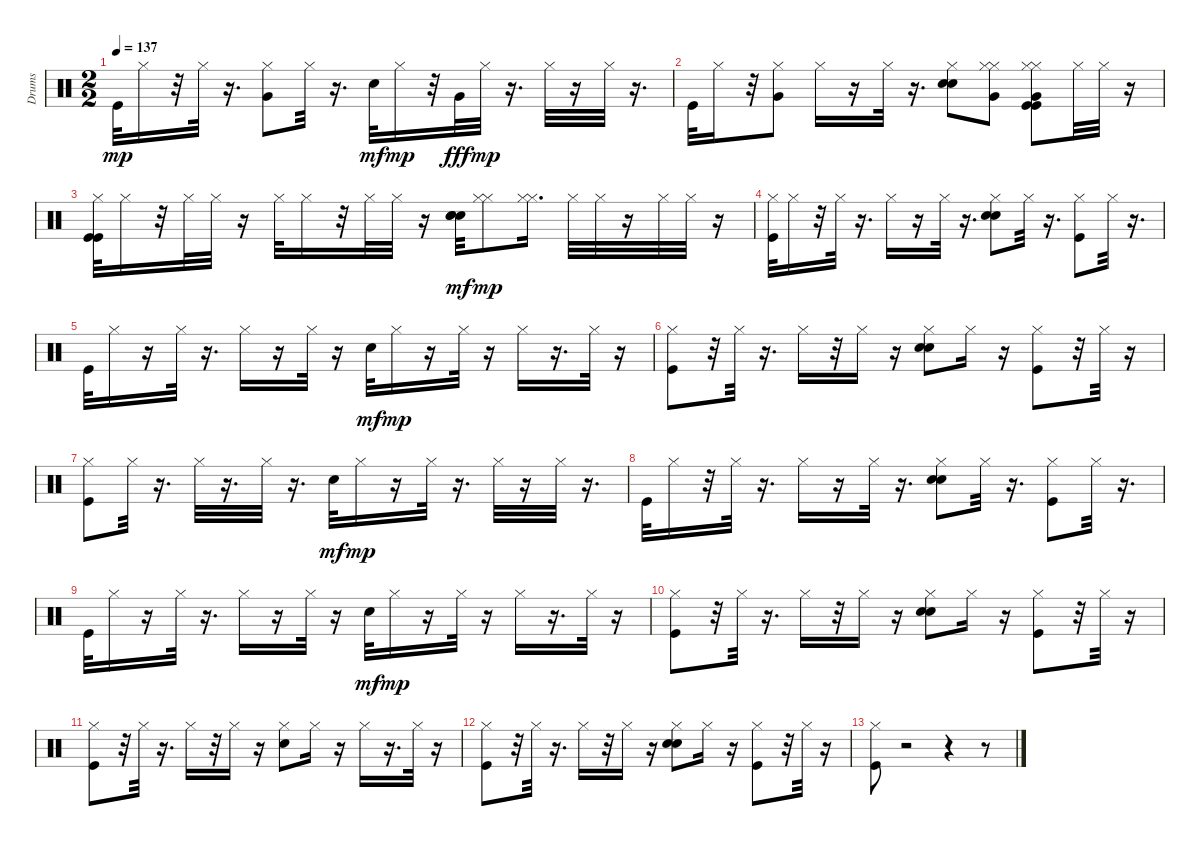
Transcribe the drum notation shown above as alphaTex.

\track ("Drums" "Drums") {instrument percussion}
\staff {score}
\articulation defaults
\ts (2 2)
\tempo 137
\clef neutral
\ks c "Kick (hit)".32{dy mp} "Hi-Hat (closed)".16
r.32 "Hi-Hat (closed)".32 r.16{d} ("Very Low Tom (hit)" "Hi-Hat (closed)").8 "Hi-Hat (closed)".32 r.16{d} "Snare (hit) 2".32{dy mf} "Hi-Hat (closed)".16{dy mp} r.32 "Very Low Tom (hit)".32{dy fff} "Hi-Hat (closed)".32{dy mp} r.16{d} "Hi-Hat (closed)".32 r.16 "Hi-Hat (closed)".32 r.16{d} |
"Kick (hit)".32 "Hi-Hat (closed)".16 r.32 ("Very Low Tom (hit)" "Hi-Hat (closed)").8 "Hi-Hat (closed)".16 r.16 "Hi-Hat (closed)".32 r.16{d} ("Snare (hit) 2" "Hand Clap (hit)" "Hi-Hat (closed)").8 ("Very Low Tom (hit)" "Hi-Hat (closed)" "Hi-Hat (closed)").8 ("Kick (hit)" "Kick (hit)" "Hi-Hat (closed)" "Very Low Tom (hit)" "Hi-Hat (closed)").8 "Hi-Hat (closed)".32 "Hi-Hat (closed)".32 r.16 |
("Kick (hit)" "Kick (hit)" "Hi-Hat (closed)").32 "Hi-Hat (closed)".16 r.32 "Hi-Hat (closed)".32{volume 13} "Hi-Hat (closed)".32 r.16 "Hi-Hat (closed)".32 "Hi-Hat (closed)".16 r.32 "Hi-Hat (closed)".32 "Hi-Hat (closed)".32 r.16 ("Snare (hit) 2" "Snare (hit) 2" "Hand Clap (hit)").32{dy mf} ("Hi-Hat (closed)" "Hi-Hat (closed)").8{dy mp} ("Hi-Hat (closed)" "Hi-Hat (closed)").16{d} "Hi-Hat (closed)".32 "Hi-Hat (closed)".32 r.16 "Hi-Hat (closed)".32 "Hi-Hat (closed)".32 r.16 |
("Kick (hit)" "Hi-Hat (closed)").32 "Hi-Hat (closed)".16 r.32 "Hi-Hat (closed)".32 r.16{d} "Hi-Hat (closed)".16 r.16 "Hi-Hat (closed)".32{volume 13} r.16{d} ("Snare (hit) 2" "Hand Clap (hit)" "Hi-Hat (closed)").8 "Hi-Hat (closed)".32 r.16{d} ("Kick (hit)" "Hi-Hat (closed)").8 "Hi-Hat (closed)".32 r.16{d} |
"Kick (hit)".32 "Hi-Hat (closed)".16 r.16 "Hi-Hat (closed)".32 r.16{d} "Hi-Hat (closed)".16 r.16 "Hi-Hat (closed)".32 r.16 "Snare (hit) 2".32{dy mf} "Hi-Hat (closed)".16{dy mp} r.16 "Hi-Hat (closed)".32 r.16 "Hi-Hat (closed)".16 r.16{d} "Hi-Hat (closed)".32 r.16 |
("Kick (hit)" "Hi-Hat (closed)").8 r.32 "Hi-Hat (closed)".32 r.16{d} "Hi-Hat (closed)".16 r.32 "Hi-Hat (closed)".16 r.16 ("Snare (hit) 2" "Hand Clap (hit)" "Hi-Hat (closed)").8 "Hi-Hat (closed)".16 r.16 ("Kick (hit)" "Hi-Hat (closed)").8 r.32 "Hi-Hat (closed)".32 r.16 |
("Kick (hit)" "Hi-Hat (closed)").8 "Hi-Hat (closed)".32{volume 12} r.16{d} "Hi-Hat (closed)".32{volume 12} r.16{d} "Hi-Hat (closed)".32{volume 11} r.16{d} "Snare (hit) 2".32{dy mf} "Hi-Hat (closed)".16{dy mp} r.16 "Hi-Hat (closed)".32{volume 10} r.16{d} "Hi-Hat (closed)".32{volume 9} r.16 "Hi-Hat (closed)".32{volume 9} r.16{d} |
"Kick (hit)".32{volume 9} "Hi-Hat (closed)".16 r.32 "Hi-Hat (closed)".32{volume 8} r.16{d} "Hi-Hat (closed)".16{volume 8} r.16 "Hi-Hat (closed)".32{volume 8} r.16{d} ("Snare (hit) 2" "Hand Clap (hit)" "Hi-Hat (closed)").8{volume 8} "Hi-Hat (closed)".32 r.16{d} ("Kick (hit)" "Hi-Hat (closed)").8{volume 7} "Hi-Hat (closed)".32{volume 7} r.16{d} |
"Kick (hit)".32{volume 7} "Hi-Hat (closed)".16 r.16 "Hi-Hat (closed)".32{volume 7} r.16{d} "Hi-Hat (closed)".16{volume 6} r.16 "Hi-Hat (closed)".32{volume 6} r.16 "Snare (hit) 2".32{dy mf} "Hi-Hat (closed)".16{dy mp} r.16 "Hi-Hat (closed)".32{volume 5} r.16 "Hi-Hat (closed)".16 r.16{d} "Hi-Hat (closed)".32{volume 5} r.16 |
("Kick (hit)" "Hi-Hat (closed)").8 r.32 "Hi-Hat (closed)".32{volume 4} r.16{d} "Hi-Hat (closed)".16{volume 4} r.32 "Hi-Hat (closed)".16 r.16 ("Snare (hit) 2" "Hand Clap (hit)" "Hi-Hat (closed)").8{volume 4} "Hi-Hat (closed)".16{volume 4} r.16 ("Kick (hit)" "Hi-Hat (closed)").8{volume 3} r.32 "Hi-Hat (closed)".32 r.16 |
("Kick (hit)" "Hi-Hat (closed)").8 r.32 "Hi-Hat (closed)".32{volume 3} r.16{d} "Hi-Hat (closed)".16{volume 3} r.32 "Hi-Hat (closed)".16{volume 2} r.16 ("Snare (hit) 2" "Hi-Hat (closed)").8 "Hi-Hat (closed)".16{volume 2} r.16 "Hi-Hat (closed)".16{volume 2} r.16{d} "Hi-Hat (closed)".32{volume 2} r.16 |
("Kick (hit)" "Hi-Hat (closed)").8 r.32 "Hi-Hat (closed)".32{volume 1} r.16{d} "Hi-Hat (closed)".16{volume 1} r.32 "Hi-Hat (closed)".16{volume 1} r.16 ("Snare (hit) 2" "Hand Clap (hit)" "Hi-Hat (closed)").8{volume 1} "Hi-Hat (closed)".16 r.16 ("Kick (hit)" "Hi-Hat (closed)").8{volume 0} r.32 "Hi-Hat (closed)".32{volume 0} r.16 |
("Kick (hit)" "Hi-Hat (closed)").8 r.2 r.4 r.8
